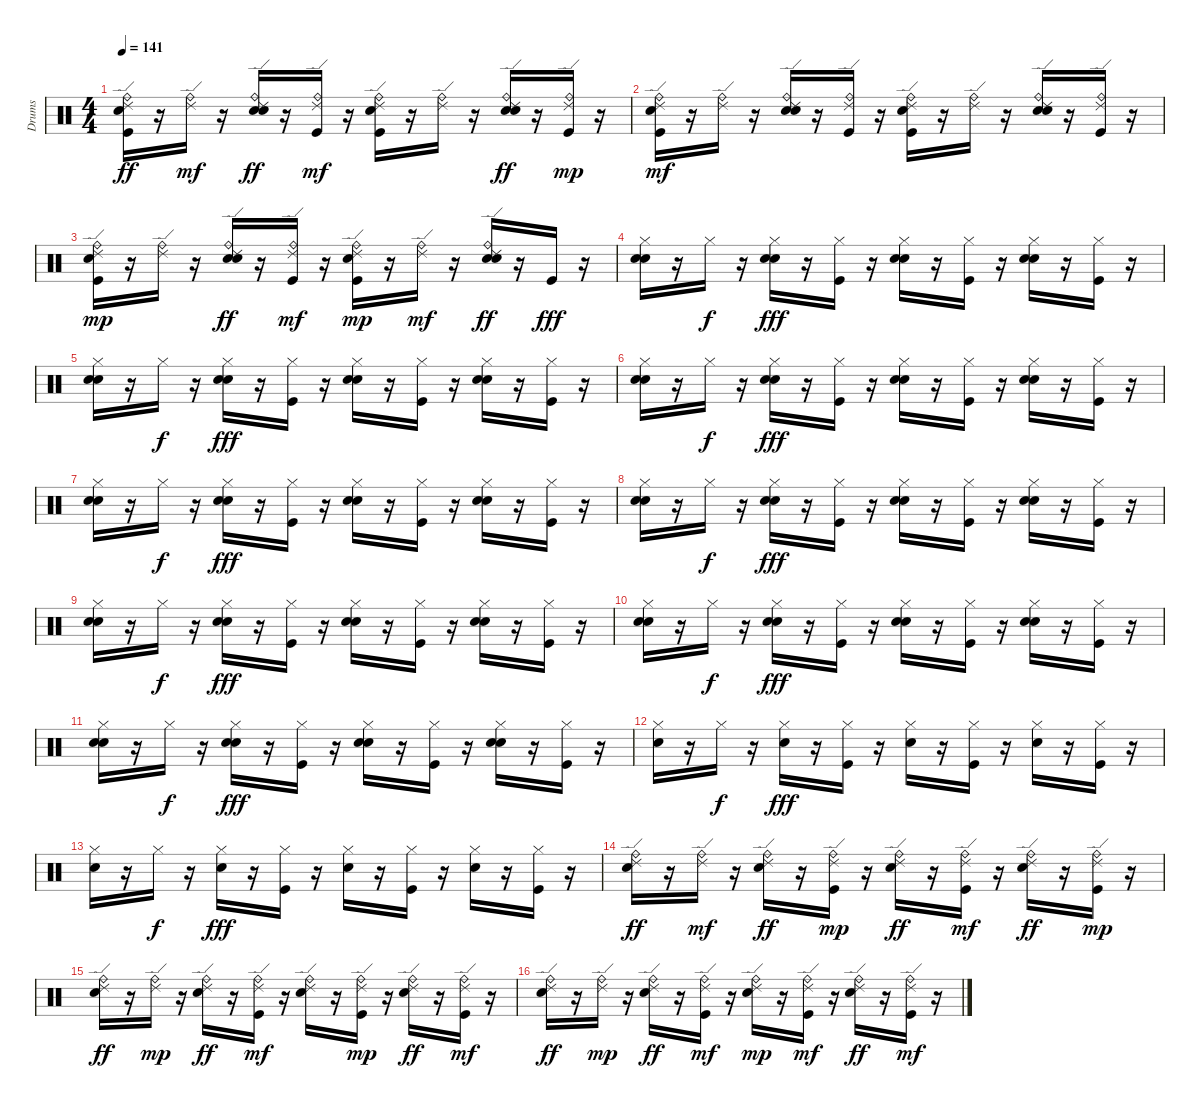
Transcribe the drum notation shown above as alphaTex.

\track ("Drums" "Drums") {instrument percussion}
\staff {score}
\articulation defaults
\ts (4 4)
\tempo 141
\clef neutral
\ks c
("Kick (hit)" "Hand Clap (hit)" "Ride (bell)" "Ride (edge) 2").16{dy ff} r.16 ("Ride (bell)" "Ride (edge) 2").16{dy mf} r.16 ("Hand Clap (hit)" "Electric Snare (hit)" "Ride (bell)" "Ride (edge) 2").16{dy ff} r.16 ("Kick (hit)" "Ride (bell)" "Ride (edge) 2").16{dy mf} r.16 ("Kick (hit)" "Hand Clap (hit)" "Ride (bell)" "Ride (edge) 2").16 r.16 ("Ride (bell)" "Ride (edge) 2").16 r.16 ("Hand Clap (hit)" "Electric Snare (hit)" "Ride (bell)" "Ride (edge) 2").16{dy ff} r.16 ("Kick (hit)" "Ride (bell)" "Ride (edge) 2").16{dy mp} r.16 |
("Kick (hit)" "Hand Clap (hit)" "Ride (bell)" "Ride (edge) 2").16{dy mf} r.16 ("Ride (bell)" "Ride (edge) 2").16 r.16 ("Hand Clap (hit)" "Electric Snare (hit)" "Ride (bell)" "Ride (edge) 2").16 r.16 ("Kick (hit)" "Ride (bell)" "Ride (edge) 2").16 r.16 ("Kick (hit)" "Hand Clap (hit)" "Ride (bell)" "Ride (edge) 2").16 r.16 ("Ride (bell)" "Ride (edge) 2").16 r.16 ("Hand Clap (hit)" "Electric Snare (hit)" "Ride (bell)" "Ride (edge) 2").16 r.16 ("Kick (hit)" "Ride (bell)" "Ride (edge) 2").16 r.16 |
("Kick (hit)" "Hand Clap (hit)" "Ride (bell)" "Ride (edge) 2").16{dy mp} r.16 ("Ride (bell)" "Ride (edge) 2").16 r.16 ("Hand Clap (hit)" "Electric Snare (hit)" "Ride (bell)" "Ride (edge) 2").16{dy ff} r.16 ("Kick (hit)" "Ride (bell)" "Ride (edge) 2").16{dy mf} r.16 ("Kick (hit)" "Hand Clap (hit)" "Ride (bell)" "Ride (edge) 2").16{dy mp} r.16 ("Ride (bell)" "Ride (edge) 2").16{dy mf} r.16 ("Hand Clap (hit)" "Electric Snare (hit)" "Ride (bell)" "Ride (edge) 2").16{dy ff} r.16 "Kick (hit)".16{dy fff} r.16 |
("Hand Clap (hit)" "Electric Snare (hit)" "Hi-Hat (closed)").16 r.16 "Hi-Hat (closed)".16{dy f} r.16 ("Hand Clap (hit)" "Electric Snare (hit)" "Hi-Hat (closed)").16{dy fff} r.16 ("Kick (hit)" "Hi-Hat (closed)").16 r.16 ("Hand Clap (hit)" "Electric Snare (hit)" "Hi-Hat (closed)").16 r.16 ("Kick (hit)" "Hi-Hat (closed)").16 r.16 ("Hand Clap (hit)" "Electric Snare (hit)" "Hi-Hat (closed)").16 r.16 ("Kick (hit)" "Hi-Hat (closed)").16 r.16 |
("Hand Clap (hit)" "Electric Snare (hit)" "Hi-Hat (closed)").16 r.16 "Hi-Hat (closed)".16{dy f} r.16 ("Hand Clap (hit)" "Electric Snare (hit)" "Hi-Hat (closed)").16{dy fff} r.16 ("Kick (hit)" "Hi-Hat (closed)").16 r.16 ("Hand Clap (hit)" "Electric Snare (hit)" "Hi-Hat (closed)").16 r.16 ("Kick (hit)" "Hi-Hat (closed)").16 r.16 ("Hand Clap (hit)" "Electric Snare (hit)" "Hi-Hat (closed)").16 r.16 ("Kick (hit)" "Hi-Hat (closed)").16 r.16 |
("Hand Clap (hit)" "Electric Snare (hit)" "Hi-Hat (closed)").16 r.16 "Hi-Hat (closed)".16{dy f} r.16 ("Hand Clap (hit)" "Electric Snare (hit)" "Hi-Hat (closed)").16{dy fff} r.16 ("Kick (hit)" "Hi-Hat (closed)").16 r.16 ("Hand Clap (hit)" "Electric Snare (hit)" "Hi-Hat (closed)").16 r.16 ("Kick (hit)" "Hi-Hat (closed)").16 r.16 ("Hand Clap (hit)" "Electric Snare (hit)" "Hi-Hat (closed)").16 r.16 ("Kick (hit)" "Hi-Hat (closed)").16 r.16 |
("Hand Clap (hit)" "Electric Snare (hit)" "Hi-Hat (closed)").16 r.16 "Hi-Hat (closed)".16{dy f} r.16 ("Hand Clap (hit)" "Electric Snare (hit)" "Hi-Hat (closed)").16{dy fff} r.16 ("Kick (hit)" "Hi-Hat (closed)").16 r.16 ("Hand Clap (hit)" "Electric Snare (hit)" "Hi-Hat (closed)").16 r.16 ("Kick (hit)" "Hi-Hat (closed)").16 r.16 ("Hand Clap (hit)" "Electric Snare (hit)" "Hi-Hat (closed)").16 r.16 ("Kick (hit)" "Hi-Hat (closed)").16 r.16 |
("Hand Clap (hit)" "Electric Snare (hit)" "Hi-Hat (closed)").16 r.16 "Hi-Hat (closed)".16{dy f} r.16 ("Hand Clap (hit)" "Electric Snare (hit)" "Hi-Hat (closed)").16{dy fff} r.16 ("Kick (hit)" "Hi-Hat (closed)").16 r.16 ("Hand Clap (hit)" "Electric Snare (hit)" "Hi-Hat (closed)").16 r.16 ("Kick (hit)" "Hi-Hat (closed)").16 r.16 ("Hand Clap (hit)" "Electric Snare (hit)" "Hi-Hat (closed)").16 r.16 ("Kick (hit)" "Hi-Hat (closed)").16 r.16 |
("Hand Clap (hit)" "Electric Snare (hit)" "Hi-Hat (closed)").16 r.16 "Hi-Hat (closed)".16{dy f} r.16 ("Hand Clap (hit)" "Electric Snare (hit)" "Hi-Hat (closed)").16{dy fff} r.16 ("Kick (hit)" "Hi-Hat (closed)").16 r.16 ("Hand Clap (hit)" "Electric Snare (hit)" "Hi-Hat (closed)").16 r.16 ("Kick (hit)" "Hi-Hat (closed)").16 r.16 ("Hand Clap (hit)" "Electric Snare (hit)" "Hi-Hat (closed)").16 r.16 ("Kick (hit)" "Hi-Hat (closed)").16 r.16 |
("Hand Clap (hit)" "Electric Snare (hit)" "Hi-Hat (closed)").16 r.16 "Hi-Hat (closed)".16{dy f} r.16 ("Hand Clap (hit)" "Electric Snare (hit)" "Hi-Hat (closed)").16{dy fff} r.16 ("Kick (hit)" "Hi-Hat (closed)").16 r.16 ("Hand Clap (hit)" "Electric Snare (hit)" "Hi-Hat (closed)").16 r.16 ("Kick (hit)" "Hi-Hat (closed)").16 r.16 ("Hand Clap (hit)" "Electric Snare (hit)" "Hi-Hat (closed)").16 r.16 ("Kick (hit)" "Hi-Hat (closed)").16 r.16 |
("Hand Clap (hit)" "Electric Snare (hit)" "Hi-Hat (closed)").16 r.16 "Hi-Hat (closed)".16{dy f} r.16 ("Hand Clap (hit)" "Electric Snare (hit)" "Hi-Hat (closed)").16{dy fff} r.16 ("Kick (hit)" "Hi-Hat (closed)").16 r.16 ("Hand Clap (hit)" "Electric Snare (hit)" "Hi-Hat (closed)").16 r.16 ("Kick (hit)" "Hi-Hat (closed)").16 r.16 ("Hand Clap (hit)" "Electric Snare (hit)" "Hi-Hat (closed)").16 r.16 ("Kick (hit)" "Hi-Hat (closed)").16 r.16 |
("Electric Snare (hit)" "Hi-Hat (closed)").16 r.16 "Hi-Hat (closed)".16{dy f} r.16 ("Electric Snare (hit)" "Hi-Hat (closed)").16{dy fff} r.16 ("Kick (hit)" "Hi-Hat (closed)").16 r.16 ("Electric Snare (hit)" "Hi-Hat (closed)").16 r.16 ("Kick (hit)" "Hi-Hat (closed)").16 r.16 ("Electric Snare (hit)" "Hi-Hat (closed)").16 r.16 ("Kick (hit)" "Hi-Hat (closed)").16 r.16 |
("Electric Snare (hit)" "Hi-Hat (closed)").16 r.16 "Hi-Hat (closed)".16{dy f} r.16 ("Electric Snare (hit)" "Hi-Hat (closed)").16{dy fff} r.16 ("Kick (hit)" "Hi-Hat (closed)").16 r.16 ("Electric Snare (hit)" "Hi-Hat (closed)").16 r.16 ("Kick (hit)" "Hi-Hat (closed)").16 r.16 ("Electric Snare (hit)" "Hi-Hat (closed)").16 r.16 ("Kick (hit)" "Hi-Hat (closed)").16 r.16 |
("Electric Snare (hit)" "Ride (bell)" "Ride (edge) 2").16{dy ff} r.16 ("Ride (bell)" "Ride (edge) 2").16{dy mf} r.16 ("Electric Snare (hit)" "Ride (bell)" "Ride (edge) 2").16{dy ff} r.16 ("Kick (hit)" "Ride (bell)" "Ride (edge) 2").16{dy mp} r.16 ("Electric Snare (hit)" "Ride (bell)" "Ride (edge) 2").16{dy ff} r.16 ("Kick (hit)" "Ride (bell)" "Ride (edge) 2").16{dy mf} r.16 ("Electric Snare (hit)" "Ride (bell)" "Ride (edge) 2").16{dy ff} r.16 ("Kick (hit)" "Ride (bell)" "Ride (edge) 2").16{dy mp} r.16 |
("Electric Snare (hit)" "Ride (bell)" "Ride (edge) 2").16{dy ff} r.16 ("Ride (bell)" "Ride (edge) 2").16{dy mp} r.16 ("Electric Snare (hit)" "Ride (bell)" "Ride (edge) 2").16{dy ff} r.16 ("Kick (hit)" "Ride (bell)" "Ride (edge) 2").16{dy mf} r.16 ("Electric Snare (hit)" "Ride (bell)" "Ride (edge) 2").16 r.16 ("Kick (hit)" "Ride (bell)" "Ride (edge) 2").16{dy mp} r.16 ("Electric Snare (hit)" "Ride (bell)" "Ride (edge) 2").16{dy ff} r.16 ("Kick (hit)" "Ride (bell)" "Ride (edge) 2").16{dy mf} r.16 |
("Electric Snare (hit)" "Ride (bell)" "Ride (edge) 2").16{dy ff} r.16 ("Ride (bell)" "Ride (edge) 2").16{dy mp} r.16 ("Electric Snare (hit)" "Ride (bell)" "Ride (edge) 2").16{dy ff} r.16 ("Kick (hit)" "Ride (bell)" "Ride (edge) 2").16{dy mf} r.16 ("Electric Snare (hit)" "Ride (bell)" "Ride (edge) 2").16{dy mp} r.16 ("Kick (hit)" "Ride (bell)" "Ride (edge) 2").16{dy mf} r.16 ("Electric Snare (hit)" "Ride (bell)" "Ride (edge) 2").16{dy ff} r.16 ("Kick (hit)" "Ride (bell)" "Ride (edge) 2").16{dy mf} r.16
